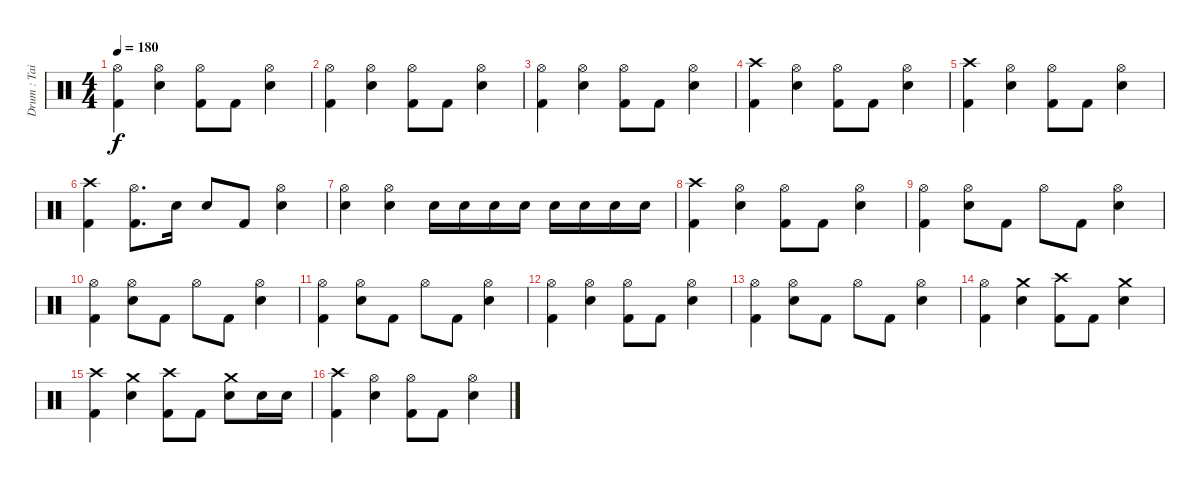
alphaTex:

\track ("Drum : Tainaka Ritsu" "Drum : Tai") {instrument percussion}
\staff {score}
\articulation defaults
\ts (4 4)
\tempo 180
\clef neutral
\ks c
("Hi-Hat (open)" "Kick (hit) 2").4{dy f} ("Hi-Hat (open)" "Snare (hit) 2").4 ("Hi-Hat (open)" "Kick (hit) 2").8 "Kick (hit) 2".8 ("Hi-Hat (open)" "Snare (hit) 2").4 |
("Hi-Hat (open)" "Kick (hit) 2").4 ("Hi-Hat (open)" "Snare (hit) 2").4 ("Hi-Hat (open)" "Kick (hit) 2").8 "Kick (hit) 2".8 ("Hi-Hat (open)" "Snare (hit) 2").4 |
("Hi-Hat (open)" "Kick (hit) 2").4 ("Hi-Hat (open)" "Snare (hit) 2").4 ("Hi-Hat (open)" "Kick (hit) 2").8 "Kick (hit) 2".8 ("Hi-Hat (open)" "Snare (hit) 2").4 |
("Crash high (hit)" "Kick (hit) 2").4 ("Hi-Hat (open)" "Snare (hit) 2").4 ("Hi-Hat (open)" "Kick (hit) 2").8 "Kick (hit) 2".8 ("Hi-Hat (open)" "Snare (hit) 2").4 |
("Crash high (hit)" "Kick (hit) 2").4 ("Hi-Hat (open)" "Snare (hit) 2").4 ("Hi-Hat (open)" "Kick (hit) 2").8 "Kick (hit) 2".8 ("Hi-Hat (open)" "Snare (hit) 2").4 |
("Crash high (hit)" "Kick (hit) 2").4 ("Hi-Hat (open)" "Kick (hit) 2").8{d} "Snare (hit) 2".16 "Snare (hit) 2".8 "Kick (hit) 2".8 ("Hi-Hat (open)" "Snare (hit) 2").4 |
("Hi-Hat (open)" "Snare (hit) 2").4 ("Hi-Hat (open)" "Snare (hit) 2").4 "Snare (hit) 2".16 "Snare (hit) 2".16 "Snare (hit) 2".16 "Snare (hit) 2".16 "Snare (hit) 2".16 "Snare (hit) 2".16 "Snare (hit) 2".16 "Snare (hit) 2".16 |
("Crash high (hit)" "Kick (hit) 2").4 ("Hi-Hat (open)" "Snare (hit) 2").4 ("Hi-Hat (open)" "Kick (hit) 2").8 "Kick (hit) 2".8 ("Hi-Hat (open)" "Snare (hit) 2").4 |
("Hi-Hat (open)" "Kick (hit) 2").4 ("Hi-Hat (open)" "Snare (hit) 2").8 "Kick (hit) 2".8 "Hi-Hat (open)".8 "Kick (hit) 2".8 ("Hi-Hat (open)" "Snare (hit) 2").4 |
("Hi-Hat (open)" "Kick (hit) 2").4 ("Hi-Hat (open)" "Snare (hit) 2").8 "Kick (hit) 2".8 "Hi-Hat (open)".8 "Kick (hit) 2".8 ("Hi-Hat (open)" "Snare (hit) 2").4 |
("Hi-Hat (open)" "Kick (hit) 2").4 ("Hi-Hat (open)" "Snare (hit) 2").8 "Kick (hit) 2".8 "Hi-Hat (open)".8 "Kick (hit) 2".8 ("Hi-Hat (open)" "Snare (hit) 2").4 |
("Hi-Hat (open)" "Kick (hit) 2").4 ("Hi-Hat (open)" "Snare (hit) 2").4 ("Hi-Hat (open)" "Kick (hit) 2").8 "Kick (hit) 2".8 ("Hi-Hat (open)" "Snare (hit) 2").4 |
("Hi-Hat (open)" "Kick (hit) 2").4 ("Hi-Hat (open)" "Snare (hit) 2").8 "Kick (hit) 2".8 "Hi-Hat (open)".8 "Kick (hit) 2".8 ("Hi-Hat (open)" "Snare (hit) 2").4 |
("Hi-Hat (open)" "Kick (hit) 2").4 ("Crash medium (hit)" "Snare (hit) 2").4 ("Crash high (hit)" "Kick (hit) 2").8 "Kick (hit) 2".8 ("Crash medium (hit)" "Snare (hit) 2").4 |
("Crash high (hit)" "Kick (hit) 2").4 ("Crash medium (hit)" "Snare (hit) 2").4 ("Crash high (hit)" "Kick (hit) 2").8 "Kick (hit) 2".8 ("Crash medium (hit)" "Snare (hit) 2").8 "Snare (hit) 2".16 "Snare (hit) 2".16 |
("Crash high (hit)" "Kick (hit) 2").4 ("Hi-Hat (open)" "Snare (hit) 2").4 ("Hi-Hat (open)" "Kick (hit) 2").8 "Kick (hit) 2".8 ("Hi-Hat (open)" "Snare (hit) 2").4
